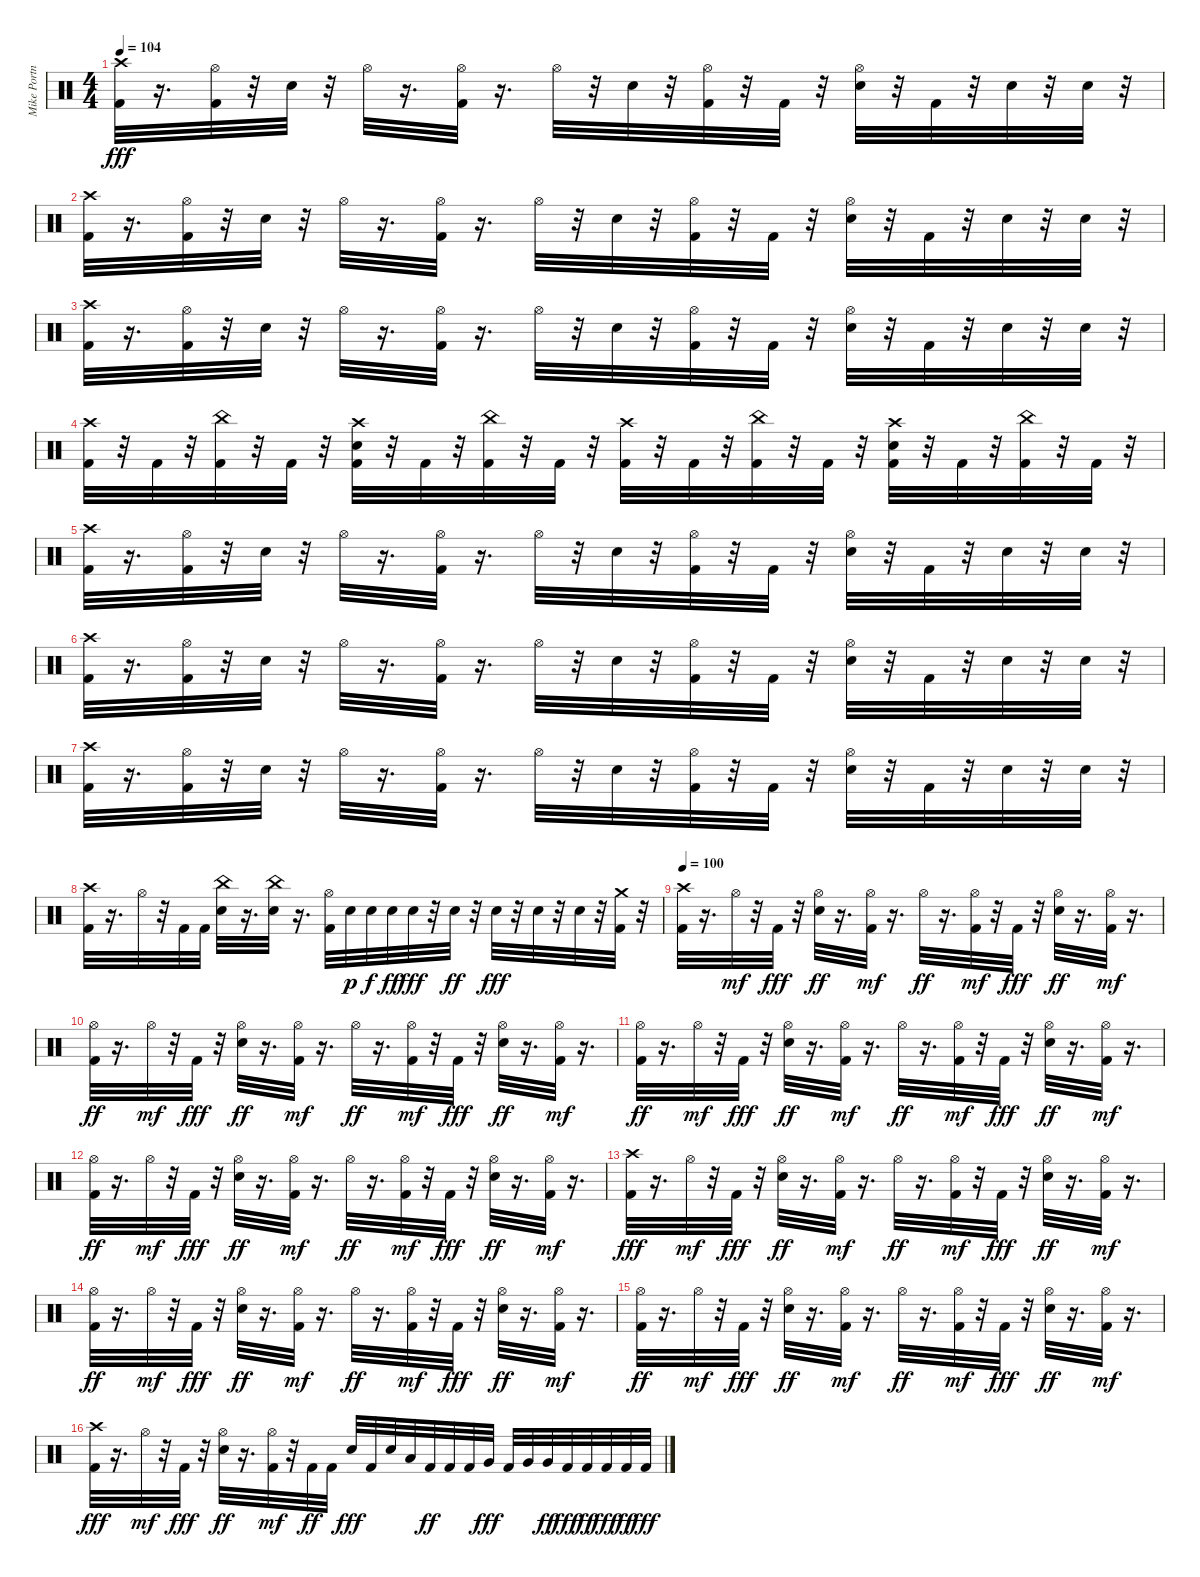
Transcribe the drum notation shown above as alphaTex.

\track ("Mike Portnoy" "Mike Portn") {instrument percussion}
\staff {score}
\articulation defaults
\ts (4 4)
\tempo 104
\clef neutral
\ks c
("Kick (hit) 2" "Crash high (hit)").32{dy fff} r.16{d} ("Kick (hit) 2" "Hi-Hat (open)").32 r.32 "Snare (hit) 2".32 r.32 "Hi-Hat (open)".32 r.16{d} ("Kick (hit) 2" "Hi-Hat (open)").32 r.16{d} "Hi-Hat (open)".32 r.32 "Snare (hit) 2".32 r.32 ("Kick (hit) 2" "Hi-Hat (open)").32 r.32 "Kick (hit) 2".32 r.32 ("Snare (hit) 2" "Hi-Hat (open)").32 r.32 "Kick (hit) 2".32 r.32 "Snare (hit) 2".32 r.32 "Snare (hit) 2".32 r.32 |
("Kick (hit) 2" "Crash high (hit)").32 r.16{d} ("Kick (hit) 2" "Hi-Hat (open)").32 r.32 "Snare (hit) 2".32 r.32 "Hi-Hat (open)".32 r.16{d} ("Kick (hit) 2" "Hi-Hat (open)").32 r.16{d} "Hi-Hat (open)".32 r.32 "Snare (hit) 2".32 r.32 ("Kick (hit) 2" "Hi-Hat (open)").32 r.32 "Kick (hit) 2".32 r.32 ("Snare (hit) 2" "Hi-Hat (open)").32 r.32 "Kick (hit) 2".32 r.32 "Snare (hit) 2".32 r.32 "Snare (hit) 2".32 r.32 |
("Kick (hit) 2" "Crash high (hit)").32 r.16{d} ("Kick (hit) 2" "Hi-Hat (open)").32 r.32 "Snare (hit) 2".32 r.32 "Hi-Hat (open)".32 r.16{d} ("Kick (hit) 2" "Hi-Hat (open)").32 r.16{d} "Hi-Hat (open)".32 r.32 "Snare (hit) 2".32 r.32 ("Kick (hit) 2" "Hi-Hat (open)").32 r.32 "Kick (hit) 2".32 r.32 ("Snare (hit) 2" "Hi-Hat (open)").32 r.32 "Kick (hit) 2".32 r.32 "Snare (hit) 2".32 r.32 "Snare (hit) 2".32 r.32 |
("Kick (hit) 2" "Crash high (hit)").32 r.32 "Kick (hit) 2".32 r.32 ("Kick (hit) 2" "China (hit)").32 r.32 "Kick (hit) 2".32 r.32 ("Kick (hit) 2" "Crash high (hit)" "Snare (hit) 2").32 r.32 "Kick (hit) 2".32 r.32 ("Kick (hit) 2" "China (hit)").32 r.32 "Kick (hit) 2".32 r.32 ("Kick (hit) 2" "Crash high (hit)").32 r.32 "Kick (hit) 2".32 r.32 ("Kick (hit) 2" "China (hit)").32 r.32 "Kick (hit) 2".32 r.32 ("Kick (hit) 2" "Crash high (hit)" "Snare (hit) 2").32 r.32 "Kick (hit) 2".32 r.32 ("Kick (hit) 2" "China (hit)").32 r.32 "Kick (hit) 2".32 r.32 |
("Kick (hit) 2" "Crash high (hit)").32 r.16{d} ("Kick (hit) 2" "Hi-Hat (open)").32 r.32 "Snare (hit) 2".32 r.32 "Hi-Hat (open)".32 r.16{d} ("Kick (hit) 2" "Hi-Hat (open)").32 r.16{d} "Hi-Hat (open)".32 r.32 "Snare (hit) 2".32 r.32 ("Kick (hit) 2" "Hi-Hat (open)").32 r.32 "Kick (hit) 2".32 r.32 ("Snare (hit) 2" "Hi-Hat (open)").32 r.32 "Kick (hit) 2".32 r.32 "Snare (hit) 2".32 r.32 "Snare (hit) 2".32 r.32 |
("Kick (hit) 2" "Crash high (hit)").32 r.16{d} ("Kick (hit) 2" "Hi-Hat (open)").32 r.32 "Snare (hit) 2".32 r.32 "Hi-Hat (open)".32 r.16{d} ("Kick (hit) 2" "Hi-Hat (open)").32 r.16{d} "Hi-Hat (open)".32 r.32 "Snare (hit) 2".32 r.32 ("Kick (hit) 2" "Hi-Hat (open)").32 r.32 "Kick (hit) 2".32 r.32 ("Snare (hit) 2" "Hi-Hat (open)").32 r.32 "Kick (hit) 2".32 r.32 "Snare (hit) 2".32 r.32 "Snare (hit) 2".32 r.32 |
("Kick (hit) 2" "Crash high (hit)").32 r.16{d} ("Kick (hit) 2" "Hi-Hat (open)").32 r.32 "Snare (hit) 2".32 r.32 "Hi-Hat (open)".32 r.16{d} ("Kick (hit) 2" "Hi-Hat (open)").32 r.16{d} "Hi-Hat (open)".32 r.32 "Snare (hit) 2".32 r.32 ("Kick (hit) 2" "Hi-Hat (open)").32 r.32 "Kick (hit) 2".32 r.32 ("Snare (hit) 2" "Hi-Hat (open)").32 r.32 "Kick (hit) 2".32 r.32 "Snare (hit) 2".32 r.32 "Snare (hit) 2".32 r.32 |
("Kick (hit) 2" "Crash high (hit)").32 r.16{d} "Hi-Hat (open)".32 r.32 "Kick (hit) 2".32 "Kick (hit) 2".32 ("Snare (hit) 2" "China (hit)").32 r.16{d} ("Snare (hit) 2" "China (hit)").32 r.16{d} ("Kick (hit) 2" "Hi-Hat (open)").32 "Snare (hit) 2".32{dy p} "Snare (hit) 2".32{dy f} "Snare (hit) 2".32{dy ff} "Snare (hit) 2".32{dy fff} r.32 "Snare (hit) 2".32{dy ff} r.32 "Snare (hit) 2".32{dy fff} r.32 "Snare (hit) 2".32 r.32 "Snare (hit) 2".32 r.32 ("Kick (hit) 2" "Crash medium (hit)").32 r.32 |
\tempo 100
("Kick (hit) 2" "Crash high (hit)").32 r.16{d} "Hi-Hat (open)".32{dy mf} r.32 "Kick (hit) 2".32{dy fff} r.32 ("Snare (hit) 2" "Hi-Hat (open)").32{dy ff} r.16{d} ("Kick (hit) 2" "Hi-Hat (open)").32{dy mf} r.16{d} "Hi-Hat (open)".32{dy ff} r.16{d} ("Kick (hit) 2" "Hi-Hat (open)").32{dy mf} r.32 "Kick (hit) 2".32{dy fff} r.32 ("Snare (hit) 2" "Hi-Hat (open)").32{dy ff} r.16{d} ("Kick (hit) 2" "Hi-Hat (open)").32{dy mf} r.16{d} |
("Kick (hit) 2" "Hi-Hat (open)").32{dy ff} r.16{d} "Hi-Hat (open)".32{dy mf} r.32 "Kick (hit) 2".32{dy fff} r.32 ("Snare (hit) 2" "Hi-Hat (open)").32{dy ff} r.16{d} ("Kick (hit) 2" "Hi-Hat (open)").32{dy mf} r.16{d} "Hi-Hat (open)".32{dy ff} r.16{d} ("Kick (hit) 2" "Hi-Hat (open)").32{dy mf} r.32 "Kick (hit) 2".32{dy fff} r.32 ("Snare (hit) 2" "Hi-Hat (open)").32{dy ff} r.16{d} ("Kick (hit) 2" "Hi-Hat (open)").32{dy mf} r.16{d} |
("Kick (hit) 2" "Hi-Hat (open)").32{dy ff} r.16{d} "Hi-Hat (open)".32{dy mf} r.32 "Kick (hit) 2".32{dy fff} r.32 ("Snare (hit) 2" "Hi-Hat (open)").32{dy ff} r.16{d} ("Kick (hit) 2" "Hi-Hat (open)").32{dy mf} r.16{d} "Hi-Hat (open)".32{dy ff} r.16{d} ("Kick (hit) 2" "Hi-Hat (open)").32{dy mf} r.32 "Kick (hit) 2".32{dy fff} r.32 ("Snare (hit) 2" "Hi-Hat (open)").32{dy ff} r.16{d} ("Kick (hit) 2" "Hi-Hat (open)").32{dy mf} r.16{d} |
("Kick (hit) 2" "Hi-Hat (open)").32{dy ff} r.16{d} "Hi-Hat (open)".32{dy mf} r.32 "Kick (hit) 2".32{dy fff} r.32 ("Snare (hit) 2" "Hi-Hat (open)").32{dy ff} r.16{d} ("Kick (hit) 2" "Hi-Hat (open)").32{dy mf} r.16{d} "Hi-Hat (open)".32{dy ff} r.16{d} ("Kick (hit) 2" "Hi-Hat (open)").32{dy mf} r.32 "Kick (hit) 2".32{dy fff} r.32 ("Snare (hit) 2" "Hi-Hat (open)").32{dy ff} r.16{d} ("Kick (hit) 2" "Hi-Hat (open)").32{dy mf} r.16{d} |
("Kick (hit) 2" "Crash high (hit)").32{dy fff} r.16{d} "Hi-Hat (open)".32{dy mf} r.32 "Kick (hit) 2".32{dy fff} r.32 ("Snare (hit) 2" "Hi-Hat (open)").32{dy ff} r.16{d} ("Kick (hit) 2" "Hi-Hat (open)").32{dy mf} r.16{d} "Hi-Hat (open)".32{dy ff} r.16{d} ("Kick (hit) 2" "Hi-Hat (open)").32{dy mf} r.32 "Kick (hit) 2".32{dy fff} r.32 ("Snare (hit) 2" "Hi-Hat (open)").32{dy ff} r.16{d} ("Kick (hit) 2" "Hi-Hat (open)").32{dy mf} r.16{d} |
("Kick (hit) 2" "Hi-Hat (open)").32{dy ff} r.16{d} "Hi-Hat (open)".32{dy mf} r.32 "Kick (hit) 2".32{dy fff} r.32 ("Snare (hit) 2" "Hi-Hat (open)").32{dy ff} r.16{d} ("Kick (hit) 2" "Hi-Hat (open)").32{dy mf} r.16{d} "Hi-Hat (open)".32{dy ff} r.16{d} ("Kick (hit) 2" "Hi-Hat (open)").32{dy mf} r.32 "Kick (hit) 2".32{dy fff} r.32 ("Snare (hit) 2" "Hi-Hat (open)").32{dy ff} r.16{d} ("Kick (hit) 2" "Hi-Hat (open)").32{dy mf} r.16{d} |
("Kick (hit) 2" "Hi-Hat (open)").32{dy ff} r.16{d} "Hi-Hat (open)".32{dy mf} r.32 "Kick (hit) 2".32{dy fff} r.32 ("Snare (hit) 2" "Hi-Hat (open)").32{dy ff} r.16{d} ("Kick (hit) 2" "Hi-Hat (open)").32{dy mf} r.16{d} "Hi-Hat (open)".32{dy ff} r.16{d} ("Kick (hit) 2" "Hi-Hat (open)").32{dy mf} r.32 "Kick (hit) 2".32{dy fff} r.32 ("Snare (hit) 2" "Hi-Hat (open)").32{dy ff} r.16{d} ("Kick (hit) 2" "Hi-Hat (open)").32{dy mf} r.16{d} |
("Kick (hit) 2" "Crash high (hit)").32{dy fff} r.16{d} "Hi-Hat (open)".32{dy mf} r.32 "Kick (hit) 2".32{dy fff} r.32 ("Snare (hit) 2" "Hi-Hat (open)").32{dy ff} r.16{d} ("Kick (hit) 2" "Hi-Hat (open)").32{dy mf} r.32 "Kick (hit) 2".32{dy ff} "Kick (hit) 2".32 "Snare (hit) 2".32{dy fff} "Kick (hit) 2".32 "Snare (hit) 2".32 "Low Tom (hit)".32 "Kick (hit) 2".32{dy ff} "Kick (hit) 2".32 "Kick (hit) 2".32 "Very Low Tom (hit)".32{dy fff} "Kick (hit) 2".32 "Very Low Tom (hit)".32 "Very Low Tom (hit)".32{dy ff} "Kick (hit) 2".32{dy fff} "Kick (hit) 2".32{dy ff} "Kick (hit) 2".32{dy fff} "Kick (hit) 2".32{dy ff} "Kick (hit) 2".32{dy fff}
